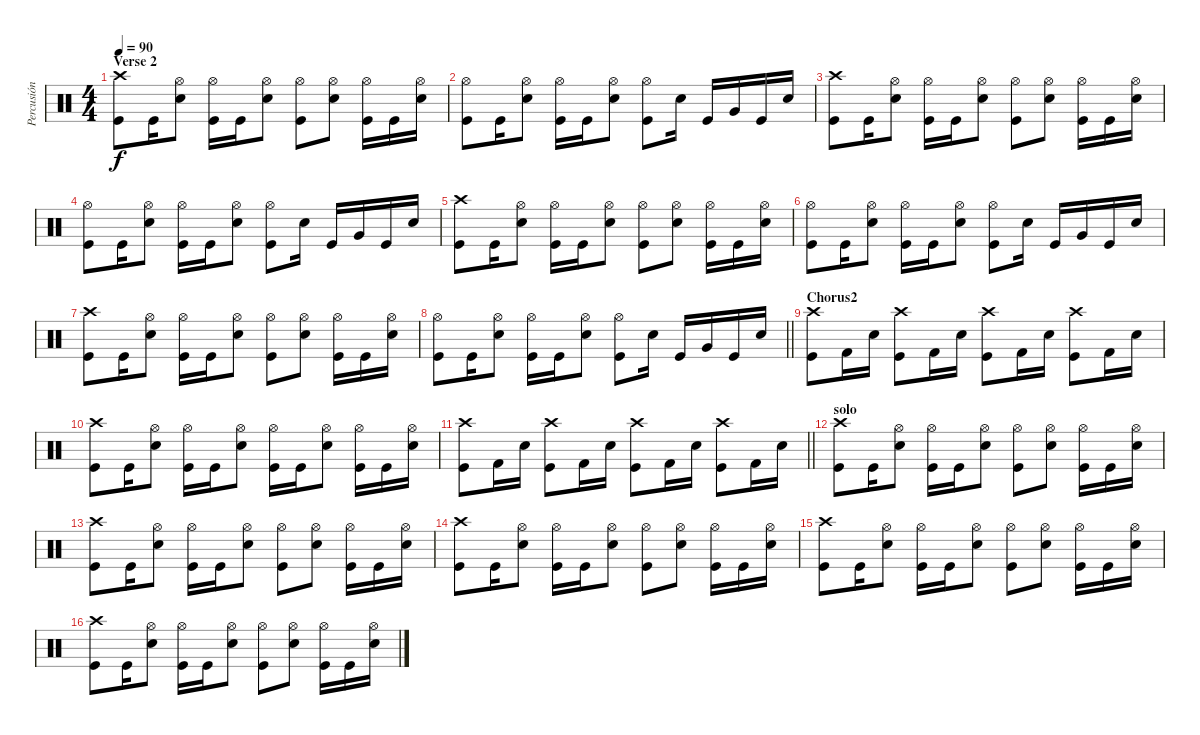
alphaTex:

\track ("Percusión" "Percusión") {instrument percussion}
\staff
\articulation defaults
\ts (4 4)
\section ("" "Verse 2")
\tempo 90
\clef neutral
\ks c
("Kick (hit)" "Crash high (hit)").8{dy f} "Kick (hit)".16 ("Hi-Hat (open)" "Electric Snare (hit)").8 ("Kick (hit)" "Hi-Hat (open)").16 "Kick (hit)".16 ("Hi-Hat (open)" "Electric Snare (hit)").8 ("Kick (hit)" "Hi-Hat (open)").8 ("Hi-Hat (open)" "Electric Snare (hit)").8 ("Kick (hit)" "Hi-Hat (open)").16 "Kick (hit)".16 ("Hi-Hat (open)" "Electric Snare (hit)").16 |
("Kick (hit)" "Hi-Hat (open)").8 "Kick (hit)".16 ("Hi-Hat (open)" "Electric Snare (hit)").8 ("Kick (hit)" "Hi-Hat (open)").16 "Kick (hit)".16 ("Hi-Hat (open)" "Electric Snare (hit)").8 ("Kick (hit)" "Hi-Hat (open)").8 "Electric Snare (hit)".16 "Kick (hit)".16 "Very Low Tom (hit)".16 "Kick (hit)".16 "Electric Snare (hit)".16 |
("Kick (hit)" "Crash high (hit)").8 "Kick (hit)".16 ("Hi-Hat (open)" "Electric Snare (hit)").8 ("Kick (hit)" "Hi-Hat (open)").16 "Kick (hit)".16 ("Hi-Hat (open)" "Electric Snare (hit)").8 ("Kick (hit)" "Hi-Hat (open)").8 ("Hi-Hat (open)" "Electric Snare (hit)").8 ("Kick (hit)" "Hi-Hat (open)").16 "Kick (hit)".16 ("Hi-Hat (open)" "Electric Snare (hit)").16 |
("Kick (hit)" "Hi-Hat (open)").8 "Kick (hit)".16 ("Hi-Hat (open)" "Electric Snare (hit)").8 ("Kick (hit)" "Hi-Hat (open)").16 "Kick (hit)".16 ("Hi-Hat (open)" "Electric Snare (hit)").8 ("Kick (hit)" "Hi-Hat (open)").8 "Electric Snare (hit)".16 "Kick (hit)".16 "Very Low Tom (hit)".16 "Kick (hit)".16 "Electric Snare (hit)".16 |
("Kick (hit)" "Crash high (hit)").8 "Kick (hit)".16 ("Hi-Hat (open)" "Electric Snare (hit)").8 ("Kick (hit)" "Hi-Hat (open)").16 "Kick (hit)".16 ("Hi-Hat (open)" "Electric Snare (hit)").8 ("Kick (hit)" "Hi-Hat (open)").8 ("Hi-Hat (open)" "Electric Snare (hit)").8 ("Kick (hit)" "Hi-Hat (open)").16 "Kick (hit)".16 ("Hi-Hat (open)" "Electric Snare (hit)").16 |
("Kick (hit)" "Hi-Hat (open)").8 "Kick (hit)".16 ("Hi-Hat (open)" "Electric Snare (hit)").8 ("Kick (hit)" "Hi-Hat (open)").16 "Kick (hit)".16 ("Hi-Hat (open)" "Electric Snare (hit)").8 ("Kick (hit)" "Hi-Hat (open)").8 "Electric Snare (hit)".16 "Kick (hit)".16 "Very Low Tom (hit)".16 "Kick (hit)".16 "Electric Snare (hit)".16 |
("Kick (hit)" "Crash high (hit)").8 "Kick (hit)".16 ("Hi-Hat (open)" "Electric Snare (hit)").8 ("Kick (hit)" "Hi-Hat (open)").16 "Kick (hit)".16 ("Hi-Hat (open)" "Electric Snare (hit)").8 ("Kick (hit)" "Hi-Hat (open)").8 ("Hi-Hat (open)" "Electric Snare (hit)").8 ("Kick (hit)" "Hi-Hat (open)").16 "Kick (hit)".16 ("Hi-Hat (open)" "Electric Snare (hit)").16 |
\barLineRight lightlight
("Kick (hit)" "Hi-Hat (open)").8 "Kick (hit)".16 ("Hi-Hat (open)" "Electric Snare (hit)").8 ("Kick (hit)" "Hi-Hat (open)").16 "Kick (hit)".16 ("Hi-Hat (open)" "Electric Snare (hit)").8 ("Kick (hit)" "Hi-Hat (open)").8 "Electric Snare (hit)".16 "Kick (hit)".16 "Very Low Tom (hit)".16 "Kick (hit)".16 "Electric Snare (hit)".16 |
\section ("" "Chorus2")
("Kick (hit)" "Crash high (hit)").8 "Kick (hit) 2".16 "Electric Snare (hit)".16 ("Kick (hit)" "Crash high (hit)").8 "Kick (hit) 2".16 "Electric Snare (hit)".16 ("Kick (hit)" "Crash high (hit)").8 "Kick (hit) 2".16 "Electric Snare (hit)".16 ("Kick (hit)" "Crash high (hit)").8 "Kick (hit) 2".16 "Electric Snare (hit)".16 |
("Kick (hit)" "Crash high (hit)").8 "Kick (hit)".16 ("Hi-Hat (open)" "Electric Snare (hit)").8 ("Kick (hit)" "Hi-Hat (open)").16 "Kick (hit)".16 ("Hi-Hat (open)" "Electric Snare (hit)").8 ("Kick (hit)" "Hi-Hat (open)").16 "Kick (hit)".16 ("Hi-Hat (open)" "Electric Snare (hit)").8 ("Kick (hit)" "Hi-Hat (open)").16 "Kick (hit)".16 ("Hi-Hat (open)" "Electric Snare (hit)").16 |
\barLineRight lightlight
("Kick (hit)" "Crash high (hit)").8 "Kick (hit) 2".16 "Electric Snare (hit)".16 ("Kick (hit)" "Crash high (hit)").8 "Kick (hit) 2".16 "Electric Snare (hit)".16 ("Kick (hit)" "Crash high (hit)").8 "Kick (hit) 2".16 "Electric Snare (hit)".16 ("Kick (hit)" "Crash high (hit)").8 "Kick (hit) 2".16 "Electric Snare (hit)".16 |
\section ("" "solo")
("Kick (hit)" "Crash high (hit)").8 "Kick (hit)".16 ("Hi-Hat (open)" "Electric Snare (hit)").8 ("Kick (hit)" "Hi-Hat (open)").16 "Kick (hit)".16 ("Hi-Hat (open)" "Electric Snare (hit)").8 ("Kick (hit)" "Hi-Hat (open)").8 ("Hi-Hat (open)" "Electric Snare (hit)").8 ("Kick (hit)" "Hi-Hat (open)").16 "Kick (hit)".16 ("Hi-Hat (open)" "Electric Snare (hit)").16 |
("Kick (hit)" "Crash high (hit)").8 "Kick (hit)".16 ("Hi-Hat (open)" "Electric Snare (hit)").8 ("Kick (hit)" "Hi-Hat (open)").16 "Kick (hit)".16 ("Hi-Hat (open)" "Electric Snare (hit)").8 ("Kick (hit)" "Hi-Hat (open)").8 ("Hi-Hat (open)" "Electric Snare (hit)").8 ("Kick (hit)" "Hi-Hat (open)").16 "Kick (hit)".16 ("Hi-Hat (open)" "Electric Snare (hit)").16 |
("Kick (hit)" "Crash high (hit)").8 "Kick (hit)".16 ("Hi-Hat (open)" "Electric Snare (hit)").8 ("Kick (hit)" "Hi-Hat (open)").16 "Kick (hit)".16 ("Hi-Hat (open)" "Electric Snare (hit)").8 ("Kick (hit)" "Hi-Hat (open)").8 ("Hi-Hat (open)" "Electric Snare (hit)").8 ("Kick (hit)" "Hi-Hat (open)").16 "Kick (hit)".16 ("Hi-Hat (open)" "Electric Snare (hit)").16 |
("Kick (hit)" "Crash high (hit)").8 "Kick (hit)".16 ("Hi-Hat (open)" "Electric Snare (hit)").8 ("Kick (hit)" "Hi-Hat (open)").16 "Kick (hit)".16 ("Hi-Hat (open)" "Electric Snare (hit)").8 ("Kick (hit)" "Hi-Hat (open)").8 ("Hi-Hat (open)" "Electric Snare (hit)").8 ("Kick (hit)" "Hi-Hat (open)").16 "Kick (hit)".16 ("Hi-Hat (open)" "Electric Snare (hit)").16 |
("Kick (hit)" "Crash high (hit)").8 "Kick (hit)".16 ("Hi-Hat (open)" "Electric Snare (hit)").8 ("Kick (hit)" "Hi-Hat (open)").16 "Kick (hit)".16 ("Hi-Hat (open)" "Electric Snare (hit)").8 ("Kick (hit)" "Hi-Hat (open)").8 ("Hi-Hat (open)" "Electric Snare (hit)").8 ("Kick (hit)" "Hi-Hat (open)").16 "Kick (hit)".16 ("Hi-Hat (open)" "Electric Snare (hit)").16
